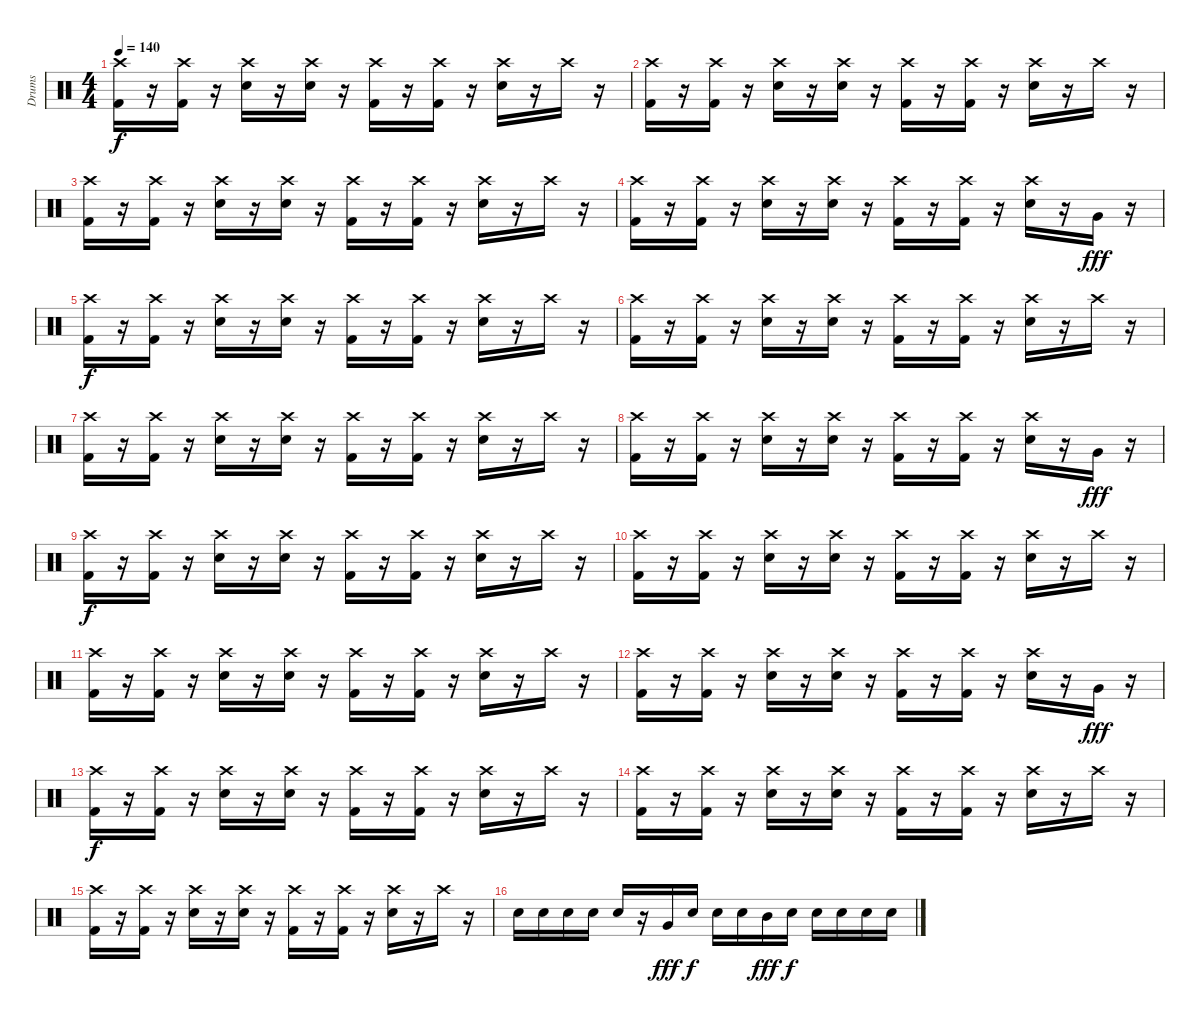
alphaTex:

\track ("Drums" "Drums") {instrument percussion}
\staff {score}
\articulation defaults
\ts (4 4)
\tempo 140
\clef neutral
\ks c
("Crash high (hit)" "Kick (hit) 2").16{dy f} r.16 ("Crash high (hit)" "Kick (hit) 2").16 r.16 ("Crash high (hit)" "Electric Snare (hit)").16 r.16 ("Crash high (hit)" "Electric Snare (hit)").16 r.16 ("Crash high (hit)" "Kick (hit) 2").16 r.16 ("Crash high (hit)" "Kick (hit) 2").16 r.16 ("Crash high (hit)" "Electric Snare (hit)").16 r.16 "Crash high (hit)".16 r.16 |
("Crash high (hit)" "Kick (hit) 2").16 r.16 ("Crash high (hit)" "Kick (hit) 2").16 r.16 ("Crash high (hit)" "Electric Snare (hit)").16 r.16 ("Crash high (hit)" "Electric Snare (hit)").16 r.16 ("Crash high (hit)" "Kick (hit) 2").16 r.16 ("Crash high (hit)" "Kick (hit) 2").16 r.16 ("Crash high (hit)" "Electric Snare (hit)").16 r.16 "Crash high (hit)".16 r.16 |
("Crash high (hit)" "Kick (hit) 2").16 r.16 ("Crash high (hit)" "Kick (hit) 2").16 r.16 ("Crash high (hit)" "Electric Snare (hit)").16 r.16 ("Crash high (hit)" "Electric Snare (hit)").16 r.16 ("Crash high (hit)" "Kick (hit) 2").16 r.16 ("Crash high (hit)" "Kick (hit) 2").16 r.16 ("Crash high (hit)" "Electric Snare (hit)").16 r.16 "Crash high (hit)".16 r.16 |
("Crash high (hit)" "Kick (hit) 2").16 r.16 ("Crash high (hit)" "Kick (hit) 2").16 r.16 ("Crash high (hit)" "Electric Snare (hit)").16 r.16 ("Crash high (hit)" "Electric Snare (hit)").16 r.16 ("Crash high (hit)" "Kick (hit) 2").16 r.16 ("Crash high (hit)" "Kick (hit) 2").16 r.16 ("Crash high (hit)" "Electric Snare (hit)").16 r.16 "Very Low Tom (hit)".16{dy fff} r.16 |
("Crash high (hit)" "Kick (hit) 2").16{dy f} r.16 ("Crash high (hit)" "Kick (hit) 2").16 r.16 ("Crash high (hit)" "Electric Snare (hit)").16 r.16 ("Crash high (hit)" "Electric Snare (hit)").16 r.16 ("Crash high (hit)" "Kick (hit) 2").16 r.16 ("Crash high (hit)" "Kick (hit) 2").16 r.16 ("Crash high (hit)" "Electric Snare (hit)").16 r.16 "Crash high (hit)".16 r.16 |
("Crash high (hit)" "Kick (hit) 2").16 r.16 ("Crash high (hit)" "Kick (hit) 2").16 r.16 ("Crash high (hit)" "Electric Snare (hit)").16 r.16 ("Crash high (hit)" "Electric Snare (hit)").16 r.16 ("Crash high (hit)" "Kick (hit) 2").16 r.16 ("Crash high (hit)" "Kick (hit) 2").16 r.16 ("Crash high (hit)" "Electric Snare (hit)").16 r.16 "Crash high (hit)".16 r.16 |
("Crash high (hit)" "Kick (hit) 2").16 r.16 ("Crash high (hit)" "Kick (hit) 2").16 r.16 ("Crash high (hit)" "Electric Snare (hit)").16 r.16 ("Crash high (hit)" "Electric Snare (hit)").16 r.16 ("Crash high (hit)" "Kick (hit) 2").16 r.16 ("Crash high (hit)" "Kick (hit) 2").16 r.16 ("Crash high (hit)" "Electric Snare (hit)").16 r.16 "Crash high (hit)".16 r.16 |
("Crash high (hit)" "Kick (hit) 2").16 r.16 ("Crash high (hit)" "Kick (hit) 2").16 r.16 ("Crash high (hit)" "Electric Snare (hit)").16 r.16 ("Crash high (hit)" "Electric Snare (hit)").16 r.16 ("Crash high (hit)" "Kick (hit) 2").16 r.16 ("Crash high (hit)" "Kick (hit) 2").16 r.16 ("Crash high (hit)" "Electric Snare (hit)").16 r.16 "Very Low Tom (hit)".16{dy fff} r.16 |
("Crash high (hit)" "Kick (hit) 2").16{dy f} r.16 ("Crash high (hit)" "Kick (hit) 2").16 r.16 ("Crash high (hit)" "Electric Snare (hit)").16 r.16 ("Crash high (hit)" "Electric Snare (hit)").16 r.16 ("Crash high (hit)" "Kick (hit) 2").16 r.16 ("Crash high (hit)" "Kick (hit) 2").16 r.16 ("Crash high (hit)" "Electric Snare (hit)").16 r.16 "Crash high (hit)".16 r.16 |
("Crash high (hit)" "Kick (hit) 2").16 r.16 ("Crash high (hit)" "Kick (hit) 2").16 r.16 ("Crash high (hit)" "Electric Snare (hit)").16 r.16 ("Crash high (hit)" "Electric Snare (hit)").16 r.16 ("Crash high (hit)" "Kick (hit) 2").16 r.16 ("Crash high (hit)" "Kick (hit) 2").16 r.16 ("Crash high (hit)" "Electric Snare (hit)").16 r.16 "Crash high (hit)".16 r.16 |
("Crash high (hit)" "Kick (hit) 2").16 r.16 ("Crash high (hit)" "Kick (hit) 2").16 r.16 ("Crash high (hit)" "Electric Snare (hit)").16 r.16 ("Crash high (hit)" "Electric Snare (hit)").16 r.16 ("Crash high (hit)" "Kick (hit) 2").16 r.16 ("Crash high (hit)" "Kick (hit) 2").16 r.16 ("Crash high (hit)" "Electric Snare (hit)").16 r.16 "Crash high (hit)".16 r.16 |
("Crash high (hit)" "Kick (hit) 2").16 r.16 ("Crash high (hit)" "Kick (hit) 2").16 r.16 ("Crash high (hit)" "Electric Snare (hit)").16 r.16 ("Crash high (hit)" "Electric Snare (hit)").16 r.16 ("Crash high (hit)" "Kick (hit) 2").16 r.16 ("Crash high (hit)" "Kick (hit) 2").16 r.16 ("Crash high (hit)" "Electric Snare (hit)").16 r.16 "Very Low Tom (hit)".16{dy fff} r.16 |
("Crash high (hit)" "Kick (hit) 2").16{dy f} r.16 ("Crash high (hit)" "Kick (hit) 2").16 r.16 ("Crash high (hit)" "Electric Snare (hit)").16 r.16 ("Crash high (hit)" "Electric Snare (hit)").16 r.16 ("Crash high (hit)" "Kick (hit) 2").16 r.16 ("Crash high (hit)" "Kick (hit) 2").16 r.16 ("Crash high (hit)" "Electric Snare (hit)").16 r.16 "Crash high (hit)".16 r.16 |
("Crash high (hit)" "Kick (hit) 2").16 r.16 ("Crash high (hit)" "Kick (hit) 2").16 r.16 ("Crash high (hit)" "Electric Snare (hit)").16 r.16 ("Crash high (hit)" "Electric Snare (hit)").16 r.16 ("Crash high (hit)" "Kick (hit) 2").16 r.16 ("Crash high (hit)" "Kick (hit) 2").16 r.16 ("Crash high (hit)" "Electric Snare (hit)").16 r.16 "Crash high (hit)".16 r.16 |
("Crash high (hit)" "Kick (hit) 2").16 r.16 ("Crash high (hit)" "Kick (hit) 2").16 r.16 ("Crash high (hit)" "Electric Snare (hit)").16 r.16 ("Crash high (hit)" "Electric Snare (hit)").16 r.16 ("Crash high (hit)" "Kick (hit) 2").16 r.16 ("Crash high (hit)" "Kick (hit) 2").16 r.16 ("Crash high (hit)" "Electric Snare (hit)").16 r.16 "Crash high (hit)".16 r.16 |
"Electric Snare (hit)".16 "Electric Snare (hit)".16 "Electric Snare (hit)".16 "Electric Snare (hit)".16 "Electric Snare (hit)".16 r.16 "Very Low Tom (hit)".16{dy fff} "Electric Snare (hit)".16{dy f} "Electric Snare (hit)".16 "Electric Snare (hit)".16 "Mid Tom (hit)".16{dy fff} "Electric Snare (hit)".16{dy f} "Electric Snare (hit)".16 "Electric Snare (hit)".16 "Electric Snare (hit)".16 "Electric Snare (hit)".16
